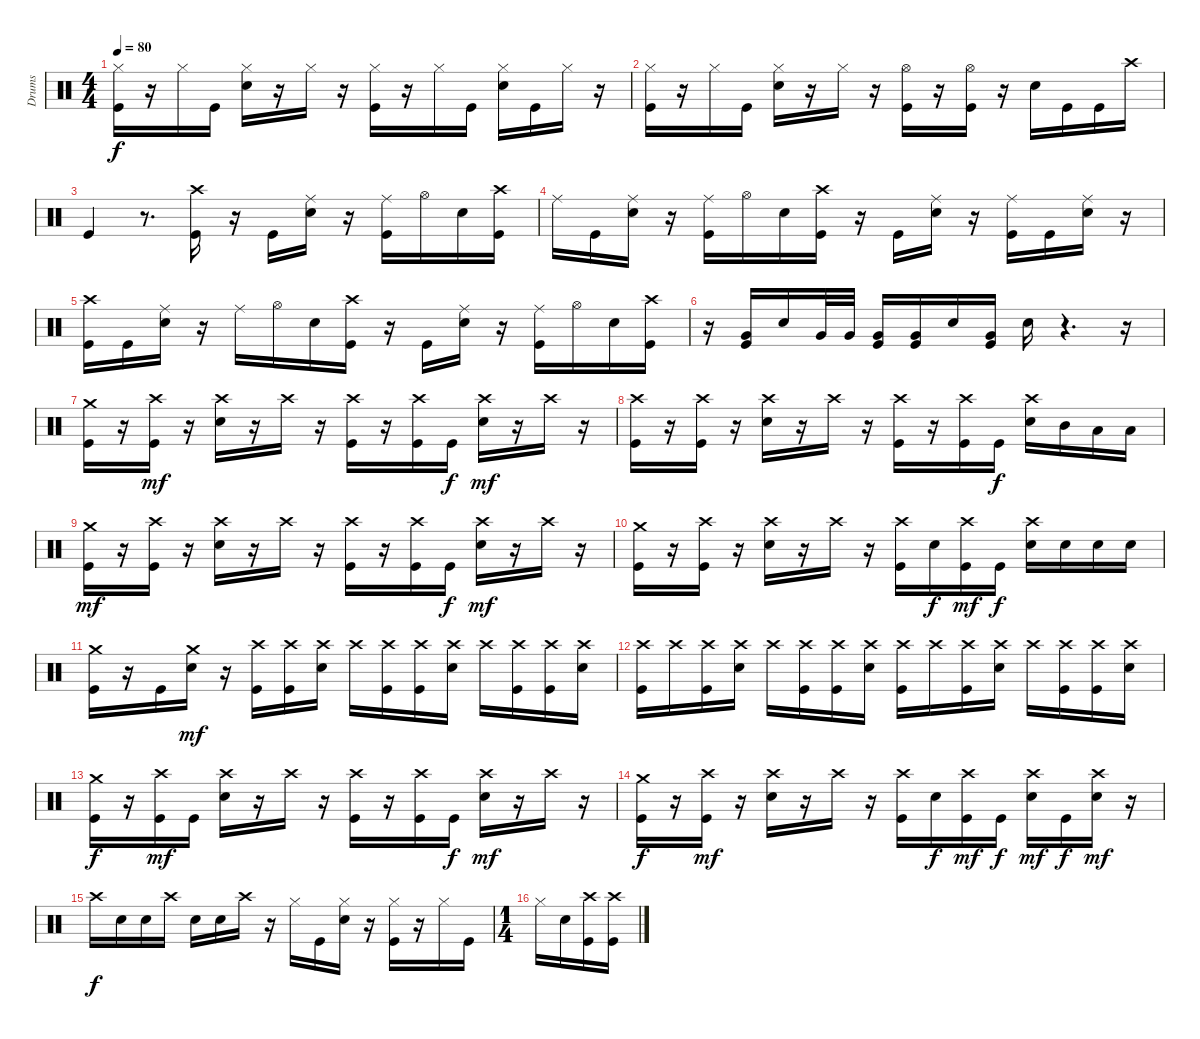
\track ("Drums" "Drums") {instrument percussion}
\staff {score}
\articulation defaults
\ts (4 4)
\tempo 80
\clef neutral
\ks c
("Hi-Hat (closed)" "Kick (hit)").16{dy f} r.16 "Hi-Hat (closed)".16 "Kick (hit)".16 ("Hi-Hat (closed)" "Snare (hit) 2").16 r.16 "Hi-Hat (closed)".16 r.16 ("Hi-Hat (closed)" "Kick (hit)").16 r.16 "Hi-Hat (closed)".16 "Kick (hit)".16 ("Hi-Hat (closed)" "Snare (hit) 2").16 "Kick (hit)".16 "Hi-Hat (closed)".16 r.16 |
("Hi-Hat (closed)" "Kick (hit)").16 r.16 "Hi-Hat (closed)".16 "Kick (hit)".16 ("Hi-Hat (closed)" "Snare (hit) 2").16 r.16 "Hi-Hat (closed)".16 r.16 ("Hi-Hat (open)" "Kick (hit)").16 r.16 ("Hi-Hat (open)" "Kick (hit)").16 r.16 "Snare (hit) 2".16 "Kick (hit)".16 "Kick (hit)".16 "Crash high (hit)".16{volume 0} |
"Kick (hit)".4 r.8{d} ("Crash high (hit)" "Kick (hit)").16{volume 13} r.16 "Kick (hit)".16 ("Ride (middle)" "Snare (hit) 2").16 r.16 ("Ride (middle)" "Kick (hit)").16 "Hi-Hat (open)".16 "Snare (hit) 2".16 ("Crash high (hit)" "Kick (hit)").16 |
"Ride (middle)".16 "Kick (hit)".16 ("Ride (middle)" "Snare (hit) 2").16 r.16 ("Ride (middle)" "Kick (hit)").16 "Hi-Hat (open)".16 "Snare (hit) 2".16 ("Crash high (hit)" "Kick (hit)").16 r.16 "Kick (hit)".16 ("Ride (middle)" "Snare (hit) 2").16 r.16 ("Ride (middle)" "Kick (hit)").16 "Kick (hit)".16 ("Ride (middle)" "Snare (hit) 2").16 r.16 |
("Crash high (hit)" "Kick (hit)").16 "Kick (hit)".16 ("Ride (middle)" "Snare (hit) 2").16 r.16 "Ride (middle)".16 "Hi-Hat (open)".16 "Snare (hit) 2".16 ("Crash high (hit)" "Kick (hit)").16 r.16 "Kick (hit)".16 ("Ride (middle)" "Snare (hit) 2").16 r.16 ("Ride (middle)" "Kick (hit)").16 "Hi-Hat (open)".16 "Snare (hit) 2".16 ("Crash high (hit)" "Kick (hit)").16 |
r.16 ("Very Low Tom (hit)" "Kick (hit)").16 "Snare (hit) 2".16 "Very Low Tom (hit)".32 "Very Low Tom (hit)".32 ("Very Low Tom (hit)" "Kick (hit)").16 ("Very Low Tom (hit)" "Kick (hit)").16 "Snare (hit) 2".16 ("Very Low Tom (hit)" "Kick (hit)").16 "Snare (hit) 2".16 r.4{d} r.16 |
("Crash medium (hit)" "Kick (hit)").16 r.16 ("Crash high (hit)" "Kick (hit)").16{dy mf} r.16 ("Crash high (hit)" "Snare (hit) 2").16 r.16 "Crash high (hit)".16 r.16 ("Crash high (hit)" "Kick (hit)").16 r.16 ("Crash high (hit)" "Kick (hit)").16 "Kick (hit)".16{dy f} ("Crash high (hit)" "Snare (hit) 2").16{dy mf} r.16 "Crash high (hit)".16 r.16 |
("Crash high (hit)" "Kick (hit)").16 r.16 ("Crash high (hit)" "Kick (hit)").16 r.16 ("Crash high (hit)" "Snare (hit) 2").16 r.16 "Crash high (hit)".16 r.16 ("Crash high (hit)" "Kick (hit)").16 r.16 ("Crash high (hit)" "Kick (hit)").16 "Kick (hit)".16{dy f} ("Crash high (hit)" "Snare (hit) 2").16 "Mid Tom (hit)".16 "Low Tom (hit)".16 "Low Tom (hit)".16 |
("Crash medium (hit)" "Kick (hit)").16{dy mf} r.16 ("Crash high (hit)" "Kick (hit)").16 r.16 ("Crash high (hit)" "Snare (hit) 2").16 r.16 "Crash high (hit)".16 r.16 ("Crash high (hit)" "Kick (hit)").16 r.16 ("Crash high (hit)" "Kick (hit)").16 "Kick (hit)".16{dy f} ("Crash high (hit)" "Snare (hit) 2").16{dy mf} r.16 "Crash high (hit)".16 r.16 |
("Crash medium (hit)" "Kick (hit)").16 r.16 ("Crash high (hit)" "Kick (hit)").16 r.16 ("Crash high (hit)" "Snare (hit) 2").16 r.16 "Crash high (hit)".16 r.16 ("Crash high (hit)" "Kick (hit)").16 "Snare (hit) 2".16{dy f} ("Crash high (hit)" "Kick (hit)").16{dy mf} "Kick (hit)".16{dy f} ("Crash high (hit)" "Snare (hit) 2").16 "Snare (hit) 2".16 "Snare (hit) 2".16 "Snare (hit) 2".16 |
("Crash medium (hit)" "Kick (hit)").16 r.16 "Kick (hit)".16 ("Crash medium (hit)" "Snare (hit) 2").16{dy mf} r.16 ("Crash high (hit)" "Kick (hit)").16 ("Crash high (hit)" "Kick (hit)").16 ("Crash high (hit)" "Snare (hit) 2").16 "Crash high (hit)".16 ("Crash high (hit)" "Kick (hit)").16 ("Crash high (hit)" "Kick (hit)").16 ("Crash high (hit)" "Snare (hit) 2").16 "Crash high (hit)".16 ("Crash high (hit)" "Kick (hit)").16 ("Crash high (hit)" "Kick (hit)").16 ("Crash high (hit)" "Snare (hit) 2").16 |
("Crash high (hit)" "Kick (hit)").16 "Crash high (hit)".16 ("Crash high (hit)" "Kick (hit)").16 ("Crash high (hit)" "Snare (hit) 2").16 "Crash high (hit)".16 ("Crash high (hit)" "Kick (hit)").16 ("Crash high (hit)" "Kick (hit)").16 ("Crash high (hit)" "Snare (hit) 2").16 ("Crash high (hit)" "Kick (hit)").16 "Crash high (hit)".16 ("Crash high (hit)" "Kick (hit)").16 ("Crash high (hit)" "Snare (hit) 2").16 "Crash high (hit)".16 ("Crash high (hit)" "Kick (hit)").16 ("Crash high (hit)" "Kick (hit)").16 ("Crash high (hit)" "Snare (hit) 2").16 |
("Crash medium (hit)" "Kick (hit)").16{dy f} r.16 ("Crash high (hit)" "Kick (hit)").16{dy mf} "Kick (hit)".16 ("Crash high (hit)" "Snare (hit) 2").16 r.16 "Crash high (hit)".16 r.16 ("Crash high (hit)" "Kick (hit)").16 r.16 ("Crash high (hit)" "Kick (hit)").16 "Kick (hit)".16{dy f} ("Crash high (hit)" "Snare (hit) 2").16{dy mf} r.16 "Crash high (hit)".16 r.16 |
("Crash medium (hit)" "Kick (hit)").16{dy f} r.16 ("Crash high (hit)" "Kick (hit)").16{dy mf} r.16 ("Crash high (hit)" "Snare (hit) 2").16 r.16 "Crash high (hit)".16 r.16 ("Crash high (hit)" "Kick (hit)").16 "Snare (hit) 2".16{dy f} ("Crash high (hit)" "Kick (hit)").16{dy mf} "Kick (hit)".16{dy f} ("Crash high (hit)" "Snare (hit) 2").16{dy mf} "Kick (hit)".16{dy f} ("Crash high (hit)" "Snare (hit) 2").16{dy mf} r.16 |
"Crash high (hit)".16{dy f} "Snare (hit) 2".16 "Snare (hit) 2".16 "Crash high (hit)".16 "Snare (hit) 2".16 "Snare (hit) 2".16 "Crash high (hit)".16 r.16 "Hi-Hat (closed)".16 "Kick (hit)".16 ("Hi-Hat (closed)" "Snare (hit) 2").16 r.16 ("Hi-Hat (closed)" "Kick (hit)").16 r.16 "Hi-Hat (closed)".16 "Kick (hit)".16 |
\ts (1 4)
"Hi-Hat (closed)".16 "Snare (hit) 2".16 ("Crash high (hit)" "Kick (hit)").16 ("Crash high (hit)" "Kick (hit)").16
